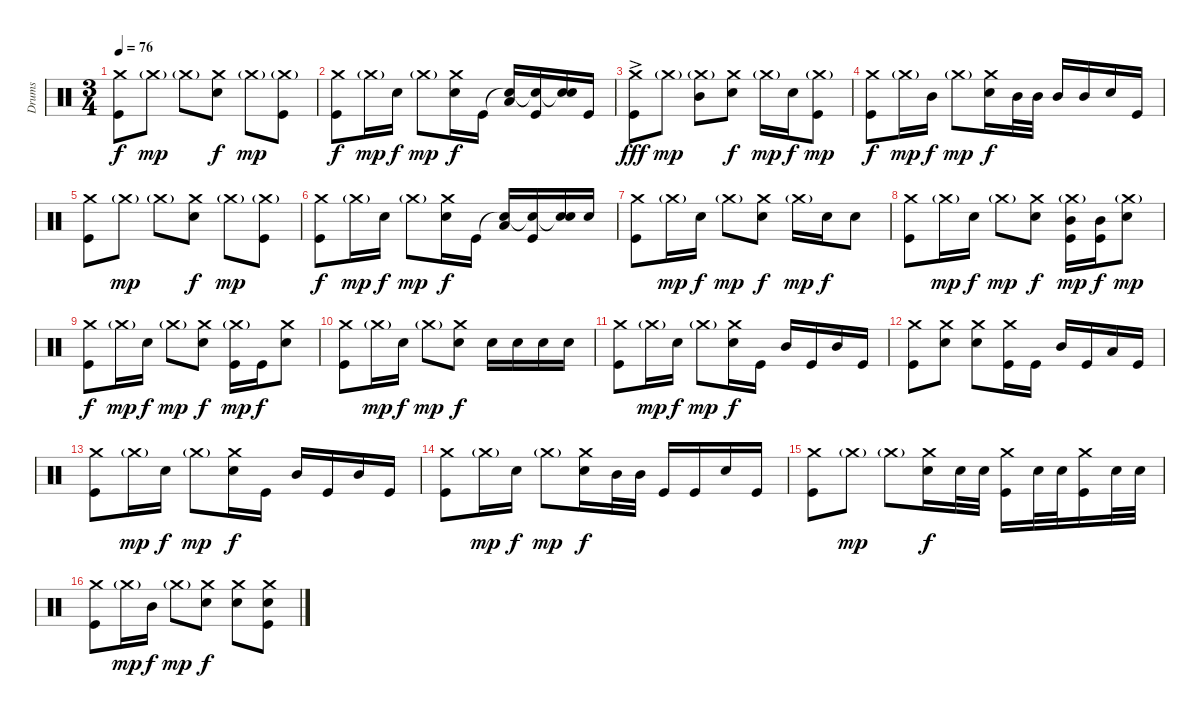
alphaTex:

\track ("Drums" "Drums") {instrument percussion}
\staff {score}
\articulation defaults
\ts (3 4)
\tempo 76
\clef neutral
\ks c
("Crash medium (hit)" "Kick (hit)").8{dy f} "Crash medium (hit)"{g}.8{dy mp} "Crash medium (hit)"{g}.8 ("Crash medium (hit)" "Electric Snare (hit)").8{dy f} "Crash medium (hit)"{g}.8{dy mp} ("Crash medium (hit)"{g} "Kick (hit)").8 |
("Crash medium (hit)" "Kick (hit)").8{dy f} "Crash medium (hit)"{g}.16{dy mp} "Electric Snare (hit)".16{dy f} "Crash medium (hit)"{g}.8{dy mp} ("Crash medium (hit)" "Electric Snare (hit)").16{dy f} "Kick (hit)".16 ("Snare (hit)"{t} "Low Tom (hit)").16 ("Snare (hit)"{t} "Kick (hit)").16 ("Snare (hit)"{t} "Electric Snare (hit)").16 "Kick (hit)".16 |
("Crash medium (hit)"{ac} "Kick (hit)"{ac}).8{dy fff} "Crash medium (hit)"{g}.8{dy mp} ("Crash medium (hit)"{g} "Mid Tom (hit)").8 ("Crash medium (hit)" "Electric Snare (hit)").8{dy f} "Crash medium (hit)"{g}.16{dy mp} "Electric Snare (hit)".16{dy f} ("Crash medium (hit)"{g} "Kick (hit)").8{dy mp} |
("Crash medium (hit)" "Kick (hit)").8{dy f} "Crash medium (hit)"{g}.16{dy mp} "Mid Tom (hit)".16{dy f} "Crash medium (hit)"{g}.8{dy mp} ("Crash medium (hit)" "Electric Snare (hit)").16{dy f} "Mid Tom (hit)".32 "Mid Tom (hit)".32 "Mid Tom (hit)".16 "Mid Tom (hit)".16 "Electric Snare (hit)".16 "Kick (hit)".16 |
("Crash medium (hit)" "Kick (hit)").8 "Crash medium (hit)"{g}.8{dy mp} "Crash medium (hit)"{g}.8 ("Crash medium (hit)" "Electric Snare (hit)").8{dy f} "Crash medium (hit)"{g}.8{dy mp} ("Crash medium (hit)"{g} "Kick (hit)").8 |
("Crash medium (hit)" "Kick (hit)").8{dy f} "Crash medium (hit)"{g}.16{dy mp} "Electric Snare (hit)".16{dy f} "Crash medium (hit)"{g}.8{dy mp} ("Crash medium (hit)" "Electric Snare (hit)").16{dy f} "Kick (hit)".16 ("Snare (hit)"{t} "Low Tom (hit)").16 ("Snare (hit)"{t} "Kick (hit)").16 ("Snare (hit)"{t} "Electric Snare (hit)").16 "Electric Snare (hit)".16 |
("Crash medium (hit)" "Kick (hit)").8 "Crash medium (hit)"{g}.16{dy mp} "Electric Snare (hit)".16{dy f} "Crash medium (hit)"{g}.8{dy mp} ("Crash medium (hit)" "Electric Snare (hit)").8{dy f} "Crash medium (hit)"{g}.16{dy mp} "Electric Snare (hit)".16{dy f} "Electric Snare (hit)".8 |
("Crash medium (hit)" "Kick (hit)").8 "Crash medium (hit)"{g}.16{dy mp} "Electric Snare (hit)".16{dy f} "Crash medium (hit)"{g}.8{dy mp} ("Crash medium (hit)" "Electric Snare (hit)").8{dy f} ("Crash medium (hit)"{g} "Mid Tom (hit)" "Kick (hit)").16{dy mp} ("Mid Tom (hit)" "Kick (hit)").16{dy f} ("Crash medium (hit)"{g} "Electric Snare (hit)").8{dy mp} |
("Crash medium (hit)" "Kick (hit)").8{dy f} "Crash medium (hit)"{g}.16{dy mp} "Electric Snare (hit)".16{dy f} "Crash medium (hit)"{g}.8{dy mp} ("Crash medium (hit)" "Electric Snare (hit)").8{dy f} ("Crash medium (hit)"{g} "Kick (hit)").16{dy mp} "Kick (hit)".16{dy f} ("Crash medium (hit)" "Electric Snare (hit)").8 |
("Crash medium (hit)" "Kick (hit)").8 "Crash medium (hit)"{g}.16{dy mp} "Electric Snare (hit)".16{dy f} "Crash medium (hit)"{g}.8{dy mp} ("Crash medium (hit)" "Electric Snare (hit)").8{dy f} "Electric Snare (hit)".16 "Electric Snare (hit)".16 "Electric Snare (hit)".16 "Electric Snare (hit)".16 |
("Crash medium (hit)" "Kick (hit)").8 "Crash medium (hit)"{g}.16{dy mp} "Electric Snare (hit)".16{dy f} "Crash medium (hit)"{g}.8{dy mp} ("Crash medium (hit)" "Electric Snare (hit)").16{dy f} "Kick (hit)".16 "Mid Tom (hit)".16 "Kick (hit)".16 "Mid Tom (hit)".16 "Kick (hit)".16 |
("Crash medium (hit)" "Kick (hit)").8 ("Crash medium (hit)" "Electric Snare (hit)").8 ("Crash medium (hit)" "Electric Snare (hit)").8 ("Crash medium (hit)" "Kick (hit)").16 "Kick (hit)".16 "Mid Tom (hit)".16 "Kick (hit)".16 "Low Tom (hit)".16 "Kick (hit)".16 |
("Crash medium (hit)" "Kick (hit)").8 "Crash medium (hit)"{g}.16{dy mp} "Electric Snare (hit)".16{dy f} "Crash medium (hit)"{g}.8{dy mp} ("Crash medium (hit)" "Electric Snare (hit)").16{dy f} "Kick (hit)".16 "Mid Tom (hit)".16 "Kick (hit)".16 "Mid Tom (hit)".16 "Kick (hit)".16 |
("Crash medium (hit)" "Kick (hit)").8 "Crash medium (hit)"{g}.16{dy mp} "Electric Snare (hit)".16{dy f} "Crash medium (hit)"{g}.8{dy mp} ("Crash medium (hit)" "Electric Snare (hit)").16{dy f} "Mid Tom (hit)".32 "Mid Tom (hit)".32 "Kick (hit)".16 "Kick (hit)".16 "Electric Snare (hit)".16 "Kick (hit)".16 |
("Crash medium (hit)" "Kick (hit)").8 "Crash medium (hit)"{g}.8{dy mp} "Crash medium (hit)"{g}.8 ("Crash medium (hit)" "Electric Snare (hit)").16{dy f} "Electric Snare (hit)".32 "Electric Snare (hit)".32 ("Crash medium (hit)" "Kick (hit)").16 "Electric Snare (hit)".32 "Electric Snare (hit)".32 ("Crash medium (hit)" "Kick (hit)").16 "Electric Snare (hit)".32 "Electric Snare (hit)".32 |
("Crash medium (hit)" "Kick (hit)").8 "Crash medium (hit)"{g}.16{dy mp} "Mid Tom (hit)".16{dy f} "Crash medium (hit)"{g}.8{dy mp} ("Crash medium (hit)" "Electric Snare (hit)").8{dy f} ("Crash medium (hit)" "Electric Snare (hit)").8 ("Crash medium (hit)" "Electric Snare (hit)" "Kick (hit)").8
